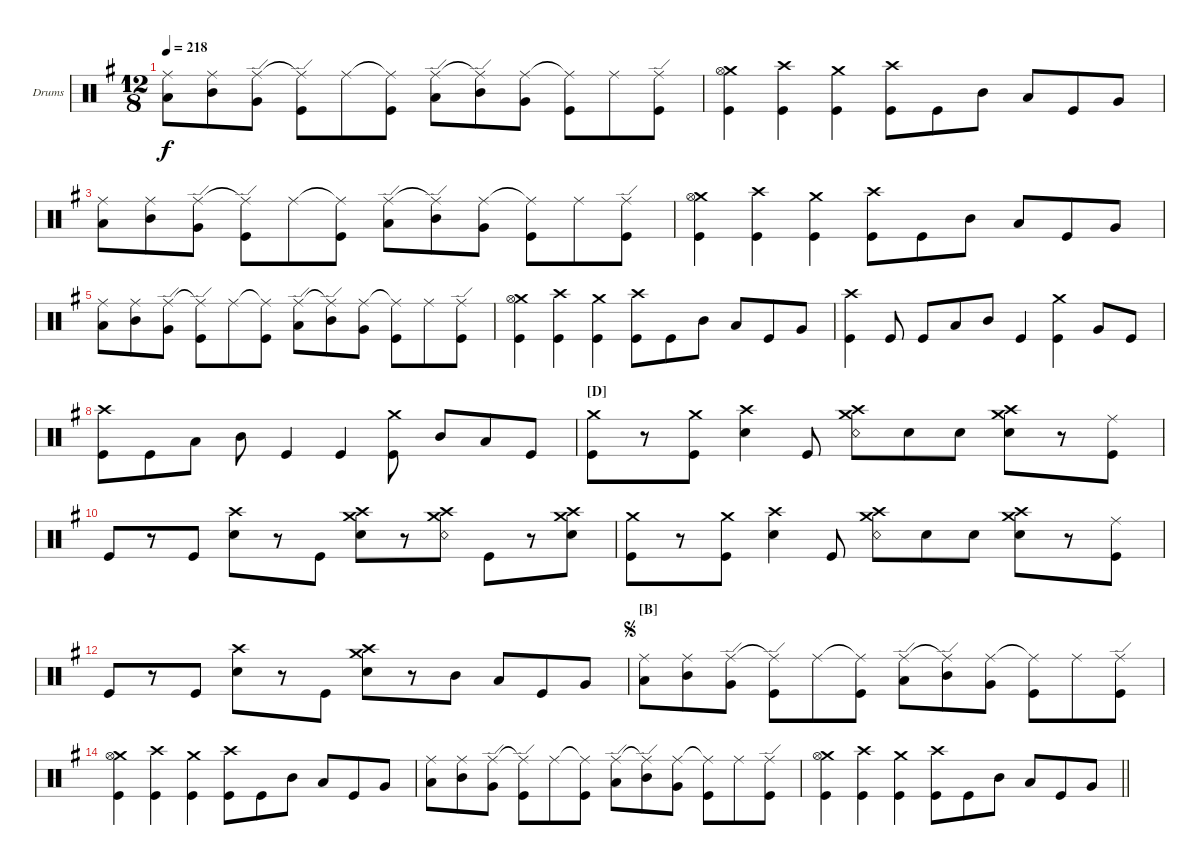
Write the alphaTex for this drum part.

\bracketExtendMode nobrackets
\firstSystemTrackNameOrientation horizontal
\otherSystemsTrackNameOrientation horizontal
\defaultBarNumberDisplay FirstOfSystem
\track ("Drums" "Drums") {instrument percussion}
\staff {score}
\articulation defaults
\ts (12 8)
\tempo 218
\clef neutral
\scale
0.267606
\ks g
("Ride (middle)" "Low Tom (hit)").8{dy f} ("Ride (middle)" "Mid Tom (hit)").8 ("Ride (edge)" "Very Low Tom (hit)").8 ("Ride (edge)"{t} "Kick (hit)").8 "Ride (middle)".8 ("Ride (middle)"{t} "Kick (hit)").8 ("Ride (edge)" "Low Tom (hit)").8 ("Ride (edge)"{t} "Mid Tom (hit)").8 ("Ride (middle)" "Very Low Tom (hit)").8 ("Ride (middle)"{t} "Kick (hit)").8 "Ride (middle)".8 ("Ride (edge)" "Kick (hit)").8 |
\scale
0.232394 ("Crash medium (hit)" "Kick (hit)" "Hi-Hat (open)").4 ("Crash high (hit)" "Kick (hit)").4 ("Crash medium (hit)" "Kick (hit)").4 ("Crash high (hit)" "Kick (hit)").8 "Kick (hit)".8 "Mid Tom (hit)".8 "Low Tom (hit)".8 "Kick (hit)".8 "Very Low Tom (hit)".8 |
\scale
0.267606 ("Ride (middle)" "Low Tom (hit)").8 ("Ride (middle)" "Mid Tom (hit)").8 ("Ride (edge)" "Very Low Tom (hit)").8 ("Ride (edge)"{t} "Kick (hit)").8 "Ride (middle)".8 ("Ride (middle)"{t} "Kick (hit)").8 ("Ride (edge)" "Low Tom (hit)").8 ("Ride (edge)"{t} "Mid Tom (hit)").8 ("Ride (middle)" "Very Low Tom (hit)").8 ("Ride (middle)"{t} "Kick (hit)").8 "Ride (middle)".8 ("Ride (edge)" "Kick (hit)").8 |
\scale
0.232394 ("Crash medium (hit)" "Kick (hit)" "Hi-Hat (open)").4 ("Crash high (hit)" "Kick (hit)").4 ("Crash medium (hit)" "Kick (hit)").4 ("Crash high (hit)" "Kick (hit)").8 "Kick (hit)".8 "Mid Tom (hit)".8 "Low Tom (hit)".8 "Kick (hit)".8 "Very Low Tom (hit)".8 |
\scale
0.274038 ("Ride (middle)" "Low Tom (hit)").8 ("Ride (middle)" "Mid Tom (hit)").8 ("Ride (edge)" "Very Low Tom (hit)").8 ("Ride (edge)"{t} "Kick (hit)").8 "Ride (middle)".8 ("Ride (middle)"{t} "Kick (hit)").8 ("Ride (edge)" "Low Tom (hit)").8 ("Ride (edge)"{t} "Mid Tom (hit)").8 ("Ride (middle)" "Very Low Tom (hit)").8 ("Ride (middle)"{t} "Kick (hit)").8 "Ride (middle)".8 ("Ride (edge)" "Kick (hit)").8 |
\scale
0.237981 ("Crash medium (hit)" "Kick (hit)" "Hi-Hat (open)").4 ("Crash high (hit)" "Kick (hit)").4 ("Crash medium (hit)" "Kick (hit)").4 ("Crash high (hit)" "Kick (hit)").8 "Kick (hit)".8 "Mid Tom (hit)".8 "Low Tom (hit)".8 "Kick (hit)".8 "Very Low Tom (hit)".8 |
\scale
0.237981 ("Crash high (hit)" "Kick (hit)").4 "Kick (hit)".8 "Kick (hit)".8 "Low Tom (hit)".8 "Mid Tom (hit)".8 "Kick (hit)".4 ("Crash medium (hit)" "Kick (hit)").4 "Very Low Tom (hit)".8 "Kick (hit)".8 |
\scale
0.25 ("Kick (hit)" "Crash high (hit)").8 "Kick (hit)".8 "Low Tom (hit)".8 "Mid Tom (hit)".8 "Kick (hit)".4 "Kick (hit)".4 ("Kick (hit)" "Crash medium (hit)").8 "Mid Tom (hit)".8 "Low Tom (hit)".8 "Kick (hit)".8 |
\section ("D" "")
\scale
0.264981 ("Crash medium (hit)" "Kick (hit)").8 r.8 ("Crash medium (hit)" "Kick (hit)").8 ("Snare (hit) 2" "Crash high (hit)").4 "Kick (hit)".8 ("Snare (rim shot)" "Crash medium (hit)" "Crash high (hit)").8 "Snare (hit) 2".8 "Snare (hit) 2".8 ("Crash medium (hit)" "Crash high (hit)" "Snare (hit) 2").8 r.8 ("Ride (middle)" "Kick (hit)").8 |
\scale
0.235019 "Kick (hit)".8 r.8 "Kick (hit)".8 ("Crash high (hit)" "Snare (hit) 2").8 r.8 "Kick (hit)".8 ("Snare (hit) 2" "Crash high (hit)" "Crash medium (hit)").8 r.8 ("Crash medium (hit)" "Crash high (hit)" "Snare (rim shot)").8 "Kick (hit)".8 r.8 ("Snare (hit) 2" "Crash high (hit)" "Crash medium (hit)").8 |
\scale
0.264981 ("Crash medium (hit)" "Kick (hit)").8 r.8 ("Crash medium (hit)" "Kick (hit)").8 ("Snare (hit) 2" "Crash high (hit)").4 "Kick (hit)".8 ("Snare (rim shot)" "Crash medium (hit)" "Crash high (hit)").8 "Snare (hit) 2".8 "Snare (hit) 2".8 ("Crash medium (hit)" "Crash high (hit)" "Snare (hit) 2").8 r.8 ("Ride (middle)" "Kick (hit)").8 |
\scale
0.235019 "Kick (hit)".8 r.8 "Kick (hit)".8 ("Crash high (hit)" "Snare (hit) 2").8 r.8 "Kick (hit)".8 ("Snare (hit) 2" "Crash high (hit)" "Crash medium (hit)").8 r.8 "Mid Tom (hit)".8 "Low Tom (hit)".8 "Kick (hit)".8 "Very Low Tom (hit)".8 |
\section ("B" "")
\jump segno
\scale
0.267606 ("Ride (middle)" "Low Tom (hit)").8 ("Ride (middle)" "Mid Tom (hit)").8 ("Ride (edge)" "Very Low Tom (hit)").8 ("Ride (edge)"{t} "Kick (hit)").8 "Ride (middle)".8 ("Ride (middle)"{t} "Kick (hit)").8 ("Ride (edge)" "Low Tom (hit)").8 ("Ride (edge)"{t} "Mid Tom (hit)").8 ("Ride (middle)" "Very Low Tom (hit)").8 ("Ride (middle)"{t} "Kick (hit)").8 "Ride (middle)".8 ("Ride (edge)" "Kick (hit)").8 |
\scale
0.232394 ("Crash medium (hit)" "Kick (hit)" "Hi-Hat (open)").4 ("Crash high (hit)" "Kick (hit)").4 ("Crash medium (hit)" "Kick (hit)").4 ("Crash high (hit)" "Kick (hit)").8 "Kick (hit)".8 "Mid Tom (hit)".8 "Low Tom (hit)".8 "Kick (hit)".8 "Very Low Tom (hit)".8 |
\scale
0.267606 ("Ride (middle)" "Low Tom (hit)").8 ("Ride (middle)" "Mid Tom (hit)").8 ("Ride (edge)" "Very Low Tom (hit)").8 ("Ride (edge)"{t} "Kick (hit)").8 "Ride (middle)".8 ("Ride (middle)"{t} "Kick (hit)").8 ("Ride (edge)" "Low Tom (hit)").8 ("Ride (edge)"{t} "Mid Tom (hit)").8 ("Ride (middle)" "Very Low Tom (hit)").8 ("Ride (middle)"{t} "Kick (hit)").8 "Ride (middle)".8 ("Ride (edge)" "Kick (hit)").8 |
\scale
0.232394
\barLineRight lightlight
("Crash medium (hit)" "Kick (hit)" "Hi-Hat (open)").4 ("Crash high (hit)" "Kick (hit)").4 ("Crash medium (hit)" "Kick (hit)").4 ("Crash high (hit)" "Kick (hit)").8 "Kick (hit)".8 "Mid Tom (hit)".8 "Low Tom (hit)".8 "Kick (hit)".8 "Very Low Tom (hit)".8
